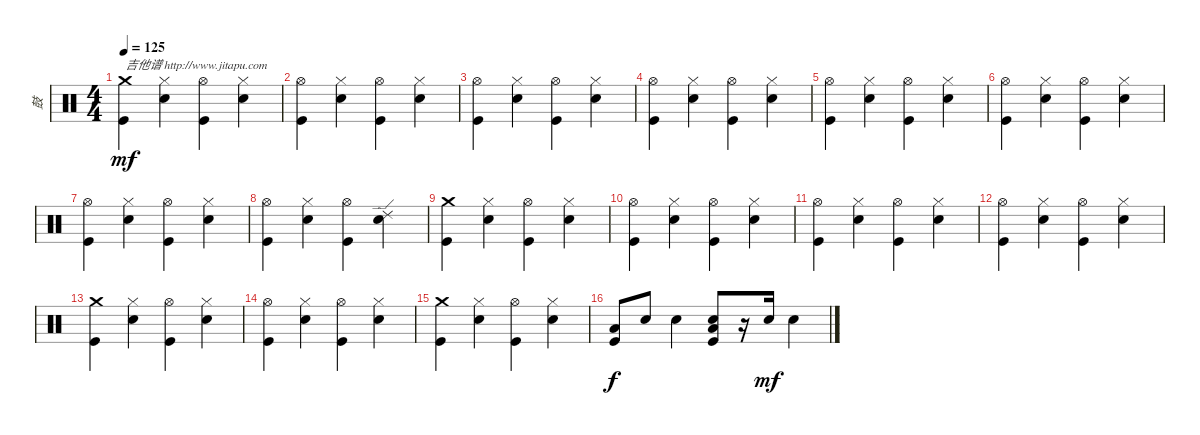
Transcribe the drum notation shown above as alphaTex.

\track ("鼓" "鼓") {instrument percussion}
\staff {score}
\articulation defaults
\ts (4 4)
\tempo 125
\clef neutral
\ks c
("Kick (hit)" "Crash medium (hit)").4{txt "吉他谱 http://www.jitapu.com" dy mf} ("Snare (hit) 2" "Hi-Hat (closed)").4 ("Kick (hit)" "Hi-Hat (open)").4 ("Snare (hit) 2" "Hi-Hat (closed)").4 |
("Kick (hit)" "Hi-Hat (open)").4 ("Snare (hit) 2" "Hi-Hat (closed)").4 ("Kick (hit)" "Hi-Hat (open)").4 ("Snare (hit) 2" "Hi-Hat (closed)").4 |
("Kick (hit)" "Hi-Hat (open)").4 ("Snare (hit) 2" "Hi-Hat (closed)").4 ("Kick (hit)" "Hi-Hat (open)").4 ("Snare (hit) 2" "Hi-Hat (closed)").4 |
("Kick (hit)" "Hi-Hat (open)").4 ("Snare (hit) 2" "Hi-Hat (closed)").4 ("Kick (hit)" "Hi-Hat (open)").4 ("Snare (hit) 2" "Hi-Hat (closed)").4 |
("Kick (hit)" "Hi-Hat (open)").4 ("Snare (hit) 2" "Hi-Hat (closed)").4 ("Kick (hit)" "Hi-Hat (open)").4 ("Snare (hit) 2" "Hi-Hat (closed)").4 |
("Kick (hit)" "Hi-Hat (open)").4 ("Snare (hit) 2" "Hi-Hat (closed)").4 ("Kick (hit)" "Hi-Hat (open)").4 ("Snare (hit) 2" "Hi-Hat (closed)").4 |
("Kick (hit)" "Hi-Hat (open)").4 ("Snare (hit) 2" "Hi-Hat (closed)").4 ("Kick (hit)" "Hi-Hat (open)").4 ("Snare (hit) 2" "Hi-Hat (closed)").4 |
("Kick (hit)" "Hi-Hat (open)").4 ("Snare (hit) 2" "Hi-Hat (closed)").4 ("Kick (hit)" "Hi-Hat (open)").4 ("Snare (hit) 2" "Ride (edge) 2").4 |
("Kick (hit)" "Crash medium (hit)").4 ("Snare (hit) 2" "Hi-Hat (closed)").4 ("Kick (hit)" "Hi-Hat (open)").4 ("Snare (hit) 2" "Hi-Hat (closed)").4 |
("Kick (hit)" "Hi-Hat (open)").4 ("Snare (hit) 2" "Hi-Hat (closed)").4 ("Kick (hit)" "Hi-Hat (open)").4 ("Snare (hit) 2" "Hi-Hat (closed)").4 |
("Kick (hit)" "Hi-Hat (open)").4 ("Snare (hit) 2" "Hi-Hat (closed)").4 ("Kick (hit)" "Hi-Hat (open)").4 ("Snare (hit) 2" "Hi-Hat (closed)").4 |
("Kick (hit)" "Hi-Hat (open)").4 ("Snare (hit) 2" "Hi-Hat (closed)").4 ("Kick (hit)" "Hi-Hat (open)").4 ("Snare (hit) 2" "Hi-Hat (closed)").4 |
("Kick (hit)" "Crash medium (hit)").4 ("Snare (hit) 2" "Hi-Hat (closed)").4 ("Kick (hit)" "Hi-Hat (open)").4 ("Snare (hit) 2" "Hi-Hat (closed)").4 |
("Kick (hit)" "Hi-Hat (open)").4 ("Snare (hit) 2" "Hi-Hat (closed)").4 ("Kick (hit)" "Hi-Hat (open)").4 ("Snare (hit) 2" "Hi-Hat (closed)").4 |
("Kick (hit)" "Crash medium (hit)").4 ("Snare (hit) 2" "Hi-Hat (closed)").4 ("Kick (hit)" "Hi-Hat (open)").4 ("Snare (hit) 2" "Hi-Hat (closed)").4 |
("Kick (hit)" "Low Tom (hit)").8{dy f} "Snare (hit) 2".8 "Snare (hit) 2".4 ("Kick (hit)" "Low Floor Tom (hit)" "Snare (hit) 2").8 r.16 "Snare (hit) 2".16{dy mf} "Snare (hit) 2".4
